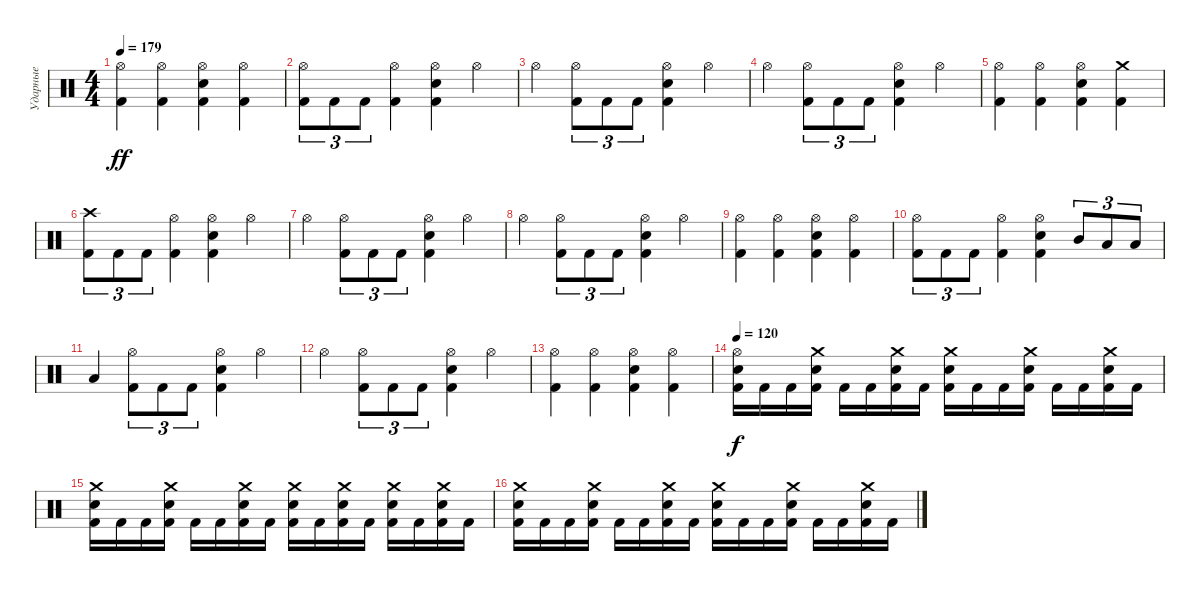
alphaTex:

\track ("Ударные" "Ударные") {instrument percussion}
\staff {score}
\articulation defaults
\ts (4 4)
\tempo 179
\clef neutral
\ks c
("Hi-Hat (open)" "Kick (hit) 2").4{dy ff} ("Hi-Hat (open)" "Kick (hit) 2").4 ("Hi-Hat (open)" "Electric Snare (hit)" "Kick (hit) 2").4 ("Hi-Hat (open)" "Kick (hit) 2").4 |
("Hi-Hat (open)" "Kick (hit) 2").8{tu (3 2)} "Kick (hit) 2".8{tu (3 2)} "Kick (hit) 2".8{tu (3 2)} ("Hi-Hat (open)" "Kick (hit) 2").4 ("Hi-Hat (open)" "Electric Snare (hit)" "Kick (hit) 2").4 "Hi-Hat (open)".4 |
"Hi-Hat (open)".4 ("Hi-Hat (open)" "Kick (hit) 2").8{tu (3 2)} "Kick (hit) 2".8{tu (3 2)} "Kick (hit) 2".8{tu (3 2)} ("Hi-Hat (open)" "Electric Snare (hit)" "Kick (hit) 2").4 "Hi-Hat (open)".4 |
"Hi-Hat (open)".4 ("Hi-Hat (open)" "Kick (hit) 2").8{tu (3 2)} "Kick (hit) 2".8{tu (3 2)} "Kick (hit) 2".8{tu (3 2)} ("Hi-Hat (open)" "Electric Snare (hit)" "Kick (hit) 2").4 "Hi-Hat (open)".4 |
("Hi-Hat (open)" "Kick (hit) 2").4 ("Hi-Hat (open)" "Kick (hit) 2").4 ("Hi-Hat (open)" "Electric Snare (hit)" "Kick (hit) 2").4 ("Crash medium (hit)" "Kick (hit) 2").4 |
("Crash high (hit)" "Kick (hit) 2").8{tu (3 2)} "Kick (hit) 2".8{tu (3 2)} "Kick (hit) 2".8{tu (3 2)} ("Hi-Hat (open)" "Kick (hit) 2").4 ("Hi-Hat (open)" "Electric Snare (hit)" "Kick (hit) 2").4 "Hi-Hat (open)".4 |
"Hi-Hat (open)".4 ("Hi-Hat (open)" "Kick (hit) 2").8{tu (3 2)} "Kick (hit) 2".8{tu (3 2)} "Kick (hit) 2".8{tu (3 2)} ("Hi-Hat (open)" "Electric Snare (hit)" "Kick (hit) 2").4 "Hi-Hat (open)".4 |
"Hi-Hat (open)".4 ("Hi-Hat (open)" "Kick (hit) 2").8{tu (3 2)} "Kick (hit) 2".8{tu (3 2)} "Kick (hit) 2".8{tu (3 2)} ("Hi-Hat (open)" "Electric Snare (hit)" "Kick (hit) 2").4 "Hi-Hat (open)".4 |
("Hi-Hat (open)" "Kick (hit) 2").4 ("Hi-Hat (open)" "Kick (hit) 2").4 ("Hi-Hat (open)" "Electric Snare (hit)" "Kick (hit) 2").4 ("Hi-Hat (open)" "Kick (hit) 2").4 |
("Hi-Hat (open)" "Kick (hit) 2").8{tu (3 2)} "Kick (hit) 2".8{tu (3 2)} "Kick (hit) 2".8{tu (3 2)} ("Hi-Hat (open)" "Kick (hit) 2").4 ("Hi-Hat (open)" "Electric Snare (hit)" "Kick (hit) 2").4 "Mid Tom (hit)".8{tu (3 2)} "Low Tom (hit)".8{tu (3 2)} "Low Tom (hit)".8{tu (3 2)} |
"Low Tom (hit)".4 ("Hi-Hat (open)" "Kick (hit) 2").8{tu (3 2)} "Kick (hit) 2".8{tu (3 2)} "Kick (hit) 2".8{tu (3 2)} ("Hi-Hat (open)" "Electric Snare (hit)" "Kick (hit) 2").4 "Hi-Hat (open)".4 |
"Hi-Hat (open)".4 ("Hi-Hat (open)" "Kick (hit) 2").8{tu (3 2)} "Kick (hit) 2".8{tu (3 2)} "Kick (hit) 2".8{tu (3 2)} ("Hi-Hat (open)" "Electric Snare (hit)" "Kick (hit) 2").4 "Hi-Hat (open)".4 |
("Hi-Hat (open)" "Kick (hit) 2").4 ("Hi-Hat (open)" "Kick (hit) 2").4 ("Hi-Hat (open)" "Electric Snare (hit)" "Kick (hit) 2").4 ("Hi-Hat (open)" "Kick (hit) 2").4 |
\tempo 120
("Hi-Hat (open)" "Electric Snare (hit)" "Kick (hit) 2").16{dy f} "Kick (hit) 2".16 "Kick (hit) 2".16 ("Crash medium (hit)" "Electric Snare (hit)" "Kick (hit) 2").16 "Kick (hit) 2".16 "Kick (hit) 2".16 ("Crash medium (hit)" "Electric Snare (hit)" "Kick (hit) 2").16 "Kick (hit) 2".16 ("Crash medium (hit)" "Electric Snare (hit)" "Kick (hit) 2").16 "Kick (hit) 2".16 "Kick (hit) 2".16 ("Crash medium (hit)" "Electric Snare (hit)" "Kick (hit) 2").16 "Kick (hit) 2".16 "Kick (hit) 2".16 ("Crash medium (hit)" "Electric Snare (hit)" "Kick (hit) 2").16 "Kick (hit) 2".16 |
("Crash medium (hit)" "Electric Snare (hit)" "Kick (hit) 2").16 "Kick (hit) 2".16 "Kick (hit) 2".16 ("Crash medium (hit)" "Electric Snare (hit)" "Kick (hit) 2").16 "Kick (hit) 2".16 "Kick (hit) 2".16 ("Crash medium (hit)" "Electric Snare (hit)" "Kick (hit) 2").16 "Kick (hit) 2".16 ("Crash medium (hit)" "Electric Snare (hit)" "Kick (hit) 2").16 "Kick (hit) 2".16 ("Crash medium (hit)" "Electric Snare (hit)" "Kick (hit) 2").16 "Kick (hit) 2".16 ("Crash medium (hit)" "Electric Snare (hit)" "Kick (hit) 2").16 "Kick (hit) 2".16 ("Crash medium (hit)" "Electric Snare (hit)" "Kick (hit) 2").16 "Kick (hit) 2".16 |
("Crash medium (hit)" "Electric Snare (hit)" "Kick (hit) 2").16 "Kick (hit) 2".16 "Kick (hit) 2".16 ("Crash medium (hit)" "Electric Snare (hit)" "Kick (hit) 2").16 "Kick (hit) 2".16 "Kick (hit) 2".16 ("Crash medium (hit)" "Electric Snare (hit)" "Kick (hit) 2").16 "Kick (hit) 2".16 ("Crash medium (hit)" "Electric Snare (hit)" "Kick (hit) 2").16 "Kick (hit) 2".16 "Kick (hit) 2".16 ("Crash medium (hit)" "Electric Snare (hit)" "Kick (hit) 2").16 "Kick (hit) 2".16 "Kick (hit) 2".16 ("Crash medium (hit)" "Electric Snare (hit)" "Kick (hit) 2").16 "Kick (hit) 2".16
